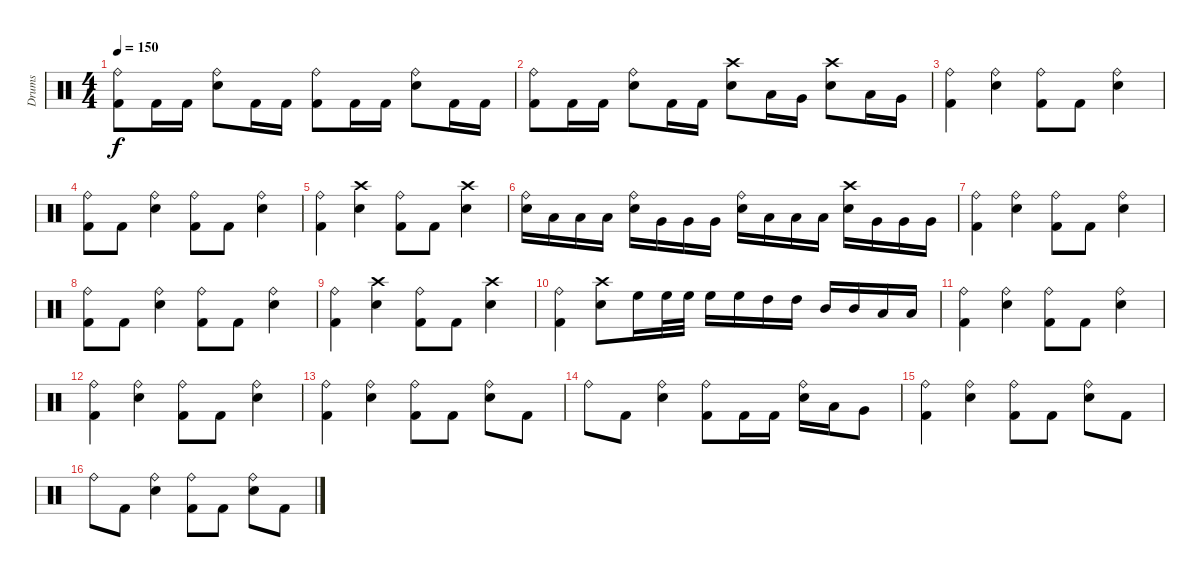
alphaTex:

\track ("Drums" "Drums") {instrument percussion}
\staff {score}
\articulation defaults
\ts (4 4)
\tempo 150
\clef neutral
\ks c
("Ride (bell)" "Kick (hit) 2").8{dy f} "Kick (hit) 2".16 "Kick (hit) 2".16 ("Ride (bell)" "Electric Snare (hit)").8 "Kick (hit) 2".16 "Kick (hit) 2".16 ("Ride (bell)" "Kick (hit) 2").8 "Kick (hit) 2".16 "Kick (hit) 2".16 ("Ride (bell)" "Electric Snare (hit)").8 "Kick (hit) 2".16 "Kick (hit) 2".16 |
("Ride (bell)" "Kick (hit) 2").8 "Kick (hit) 2".16 "Kick (hit) 2".16 ("Ride (bell)" "Electric Snare (hit)").8 "Kick (hit) 2".16 "Kick (hit) 2".16 ("Crash high (hit)" "Electric Snare (hit)").8 "Low Tom (hit)".16 "Very Low Tom (hit)".16 ("Crash high (hit)" "Electric Snare (hit)").8 "Low Tom (hit)".16 "Very Low Tom (hit)".16 |
("Ride (bell)" "Kick (hit) 2").4 ("Ride (bell)" "Electric Snare (hit)").4 ("Ride (bell)" "Kick (hit) 2").8 "Kick (hit) 2".8 ("Ride (bell)" "Electric Snare (hit)").4 |
("Ride (bell)" "Kick (hit) 2").8 "Kick (hit) 2".8 ("Ride (bell)" "Electric Snare (hit)").4 ("Ride (bell)" "Kick (hit) 2").8 "Kick (hit) 2".8 ("Ride (bell)" "Electric Snare (hit)").4 |
("Ride (bell)" "Kick (hit) 2").4 ("Crash high (hit)" "Electric Snare (hit)").4 ("Ride (bell)" "Kick (hit) 2").8 "Kick (hit) 2".8 ("Crash high (hit)" "Electric Snare (hit)").4 |
("Ride (bell)" "Electric Snare (hit)").16 "Low Tom (hit)".16 "Low Tom (hit)".16 "Low Tom (hit)".16 ("Ride (bell)" "Electric Snare (hit)").16 "Very Low Tom (hit)".16 "Very Low Tom (hit)".16 "Very Low Tom (hit)".16 ("Ride (bell)" "Electric Snare (hit)").16 "Low Tom (hit)".16 "Low Tom (hit)".16 "Low Tom (hit)".16 ("Crash high (hit)" "Electric Snare (hit)").16 "Very Low Tom (hit)".16 "Very Low Tom (hit)".16 "Very Low Tom (hit)".16 |
("Ride (bell)" "Kick (hit) 2").4 ("Ride (bell)" "Electric Snare (hit)").4 ("Ride (bell)" "Kick (hit) 2").8 "Kick (hit) 2".8 ("Ride (bell)" "Electric Snare (hit)").4 |
("Ride (bell)" "Kick (hit) 2").8 "Kick (hit) 2".8 ("Ride (bell)" "Electric Snare (hit)").4 ("Ride (bell)" "Kick (hit) 2").8 "Kick (hit) 2".8 ("Ride (bell)" "Electric Snare (hit)").4 |
("Ride (bell)" "Kick (hit) 2").4 ("Crash high (hit)" "Electric Snare (hit)").4 ("Ride (bell)" "Kick (hit) 2").8 "Kick (hit) 2".8 ("Crash high (hit)" "Electric Snare (hit)").4 |
("Ride (bell)" "Kick (hit) 2").4 ("Crash high (hit)" "Electric Snare (hit)").8 "High Floor Tom (hit)".16 "High Floor Tom (hit)".32 "High Floor Tom (hit)".32 "High Floor Tom (hit)".16 "High Floor Tom (hit)".16 "High Tom (hit)".16 "High Tom (hit)".16 "Mid Tom (hit)".16 "Mid Tom (hit)".16 "Low Tom (hit)".16 "Low Tom (hit)".16 |
("Ride (bell)" "Kick (hit) 2").4 ("Ride (bell)" "Electric Snare (hit)").4 ("Ride (bell)" "Kick (hit) 2").8 "Kick (hit) 2".8 ("Ride (bell)" "Electric Snare (hit)").4 |
("Ride (bell)" "Kick (hit) 2").4 ("Ride (bell)" "Electric Snare (hit)").4 ("Ride (bell)" "Kick (hit) 2").8 "Kick (hit) 2".8 ("Ride (bell)" "Electric Snare (hit)").4 |
("Ride (bell)" "Kick (hit) 2").4 ("Ride (bell)" "Electric Snare (hit)").4 ("Ride (bell)" "Kick (hit) 2").8 "Kick (hit) 2".8 ("Ride (bell)" "Electric Snare (hit)").8 "Kick (hit) 2".8 |
"Ride (bell)".8 "Kick (hit) 2".8 ("Ride (bell)" "Electric Snare (hit)").4 ("Ride (bell)" "Kick (hit) 2").8 "Kick (hit) 2".16 "Kick (hit) 2".16 ("Ride (bell)" "Electric Snare (hit)").16 "Low Tom (hit)".16 "Very Low Tom (hit)".8 |
("Ride (bell)" "Kick (hit) 2").4 ("Ride (bell)" "Electric Snare (hit)").4 ("Ride (bell)" "Kick (hit) 2").8 "Kick (hit) 2".8 ("Ride (bell)" "Electric Snare (hit)").8 "Kick (hit) 2".8 |
"Ride (bell)".8 "Kick (hit) 2".8 ("Ride (bell)" "Electric Snare (hit)").4 ("Ride (bell)" "Kick (hit) 2").8 "Kick (hit) 2".8 ("Ride (bell)" "Electric Snare (hit)").8 "Kick (hit) 2".8
